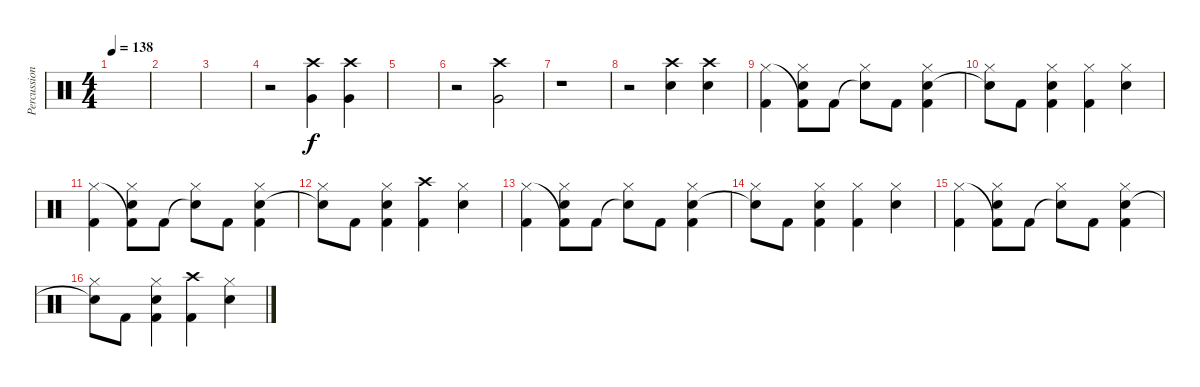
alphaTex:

\track ("Percussion" "Percussion") {instrument percussion}
\staff {score}
\articulation defaults
\ts (4 4)
\tempo 138
\clef neutral
\ks c
|
|
|
r.2 ("Very Low Tom (hit)" "Crash high (hit)").4 ("Very Low Tom (hit)" "Crash high (hit)").4 |
|
r.2 ("Very Low Tom (hit)" "Crash high (hit)").2 |
r.1 |
r.2 ("Snare (hit) 2" "Crash high (hit)").4 ("Snare (hit) 2" "Crash high (hit)").4 |
("Kick (hit) 2" "Hi-Hat (closed)").4 ("Snare (hit) 2" "Kick (hit) 2"{t} "Hi-Hat (closed)").8 "Kick (hit) 2".8 ("Snare (hit)"{t} "Hi-Hat (closed)").8 "Kick (hit) 2".8 ("Snare (hit) 2" "Kick (hit) 2" "Hi-Hat (closed)").4 |
("Snare (hit)"{t} "Hi-Hat (closed)").8 "Kick (hit) 2".8 ("Snare (hit) 2" "Kick (hit) 2" "Hi-Hat (closed)").4 ("Kick (hit) 2" "Hi-Hat (closed)").4 ("Snare (hit) 2" "Hi-Hat (closed)").4 |
("Kick (hit) 2" "Hi-Hat (closed)").4 ("Snare (hit) 2" "Kick (hit) 2"{t} "Hi-Hat (closed)").8 "Kick (hit) 2".8 ("Snare (hit)"{t} "Hi-Hat (closed)").8 "Kick (hit) 2".8 ("Snare (hit) 2" "Kick (hit) 2" "Hi-Hat (closed)").4 |
("Snare (hit)"{t} "Hi-Hat (closed)").8 "Kick (hit) 2".8 ("Snare (hit) 2" "Kick (hit) 2" "Hi-Hat (closed)").4 ("Kick (hit) 2" "Crash high (hit)").4 ("Snare (hit) 2" "Hi-Hat (closed)").4 |
("Kick (hit) 2" "Hi-Hat (closed)").4 ("Snare (hit) 2" "Kick (hit) 2"{t} "Hi-Hat (closed)").8 "Kick (hit) 2".8 ("Snare (hit)"{t} "Hi-Hat (closed)").8 "Kick (hit) 2".8 ("Snare (hit) 2" "Kick (hit) 2" "Hi-Hat (closed)").4 |
("Snare (hit)"{t} "Hi-Hat (closed)").8 "Kick (hit) 2".8 ("Snare (hit) 2" "Kick (hit) 2" "Hi-Hat (closed)").4 ("Kick (hit) 2" "Hi-Hat (closed)").4 ("Snare (hit) 2" "Hi-Hat (closed)").4 |
("Kick (hit) 2" "Hi-Hat (closed)").4 ("Snare (hit) 2" "Kick (hit) 2"{t} "Hi-Hat (closed)").8 "Kick (hit) 2".8 ("Snare (hit)"{t} "Hi-Hat (closed)").8 "Kick (hit) 2".8 ("Snare (hit) 2" "Kick (hit) 2" "Hi-Hat (closed)").4 |
("Snare (hit)"{t} "Hi-Hat (closed)").8 "Kick (hit) 2".8 ("Snare (hit) 2" "Kick (hit) 2" "Hi-Hat (closed)").4 ("Kick (hit) 2" "Crash high (hit)").4 ("Snare (hit) 2" "Hi-Hat (closed)").4
